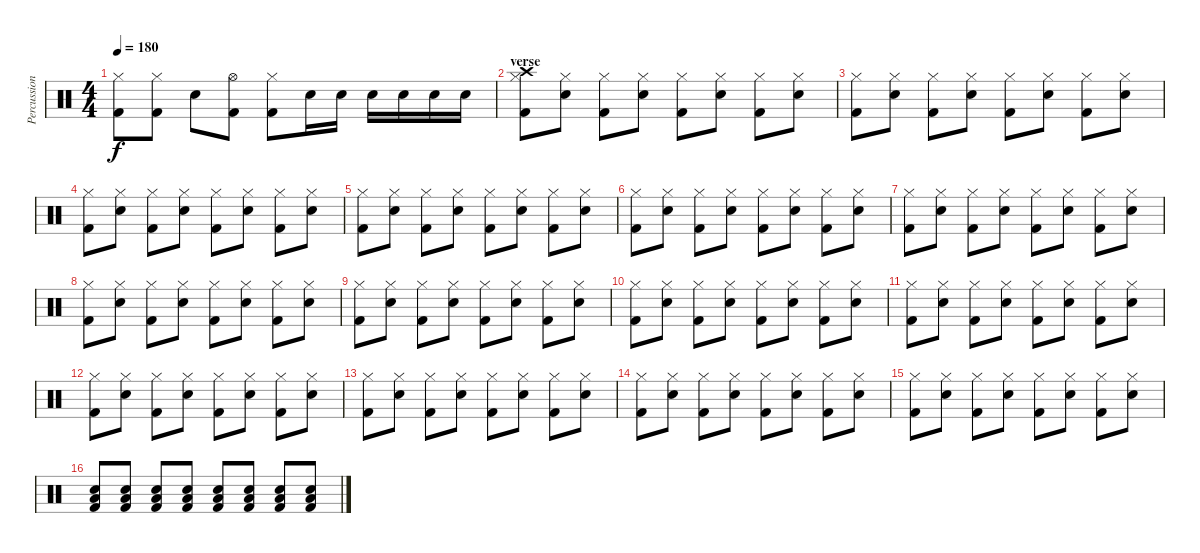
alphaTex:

\track ("Percussion" "Percussion") {instrument percussion}
\staff {score}
\articulation defaults
\ts (4 4)
\tempo 180
\clef neutral
\ks c
("Hi-Hat (closed)" "Kick (hit) 2").8{dy f} ("Hi-Hat (closed)" "Kick (hit) 2").8 "Electric Snare (hit)".8 ("Hi-Hat (open)" "Kick (hit) 2").8 ("Hi-Hat (closed)" "Kick (hit) 2").8 "Electric Snare (hit)".16 "Electric Snare (hit)".16 "Electric Snare (hit)".16 "Electric Snare (hit)".16 "Electric Snare (hit)".16 "Electric Snare (hit)".16 |
\section ("" "verse")
("Crash high (hit)" "Hi-Hat (closed)" "Kick (hit) 2").8 ("Hi-Hat (closed)" "Electric Snare (hit)").8 ("Hi-Hat (closed)" "Kick (hit) 2").8 ("Hi-Hat (closed)" "Electric Snare (hit)").8 ("Hi-Hat (closed)" "Kick (hit) 2").8 ("Hi-Hat (closed)" "Electric Snare (hit)").8 ("Hi-Hat (closed)" "Kick (hit) 2").8 ("Hi-Hat (closed)" "Electric Snare (hit)").8 |
("Hi-Hat (closed)" "Kick (hit) 2").8 ("Hi-Hat (closed)" "Electric Snare (hit)").8 ("Hi-Hat (closed)" "Kick (hit) 2").8 ("Hi-Hat (closed)" "Electric Snare (hit)").8 ("Hi-Hat (closed)" "Kick (hit) 2").8 ("Hi-Hat (closed)" "Electric Snare (hit)").8 ("Hi-Hat (closed)" "Kick (hit) 2").8 ("Hi-Hat (closed)" "Electric Snare (hit)").8 |
("Hi-Hat (closed)" "Kick (hit) 2").8 ("Hi-Hat (closed)" "Electric Snare (hit)").8 ("Hi-Hat (closed)" "Kick (hit) 2").8 ("Hi-Hat (closed)" "Electric Snare (hit)").8 ("Hi-Hat (closed)" "Kick (hit) 2").8 ("Hi-Hat (closed)" "Electric Snare (hit)").8 ("Hi-Hat (closed)" "Kick (hit) 2").8 ("Hi-Hat (closed)" "Electric Snare (hit)").8 |
("Hi-Hat (closed)" "Kick (hit) 2").8 ("Hi-Hat (closed)" "Electric Snare (hit)").8 ("Hi-Hat (closed)" "Kick (hit) 2").8 ("Hi-Hat (closed)" "Electric Snare (hit)").8 ("Hi-Hat (closed)" "Kick (hit) 2").8 ("Hi-Hat (closed)" "Electric Snare (hit)").8 ("Hi-Hat (closed)" "Kick (hit) 2").8 ("Hi-Hat (closed)" "Electric Snare (hit)").8 |
("Hi-Hat (closed)" "Kick (hit) 2").8 ("Hi-Hat (closed)" "Electric Snare (hit)").8 ("Hi-Hat (closed)" "Kick (hit) 2").8 ("Hi-Hat (closed)" "Electric Snare (hit)").8 ("Hi-Hat (closed)" "Kick (hit) 2").8 ("Hi-Hat (closed)" "Electric Snare (hit)").8 ("Hi-Hat (closed)" "Kick (hit) 2").8 ("Hi-Hat (closed)" "Electric Snare (hit)").8 |
("Hi-Hat (closed)" "Kick (hit) 2").8 ("Hi-Hat (closed)" "Electric Snare (hit)").8 ("Hi-Hat (closed)" "Kick (hit) 2").8 ("Hi-Hat (closed)" "Electric Snare (hit)").8 ("Hi-Hat (closed)" "Kick (hit) 2").8 ("Hi-Hat (closed)" "Electric Snare (hit)").8 ("Hi-Hat (closed)" "Kick (hit) 2").8 ("Hi-Hat (closed)" "Electric Snare (hit)").8 |
("Hi-Hat (closed)" "Kick (hit) 2").8 ("Hi-Hat (closed)" "Electric Snare (hit)").8 ("Hi-Hat (closed)" "Kick (hit) 2").8 ("Hi-Hat (closed)" "Electric Snare (hit)").8 ("Hi-Hat (closed)" "Kick (hit) 2").8 ("Hi-Hat (closed)" "Electric Snare (hit)").8 ("Hi-Hat (closed)" "Kick (hit) 2").8 ("Hi-Hat (closed)" "Electric Snare (hit)").8 |
("Hi-Hat (closed)" "Kick (hit) 2").8 ("Hi-Hat (closed)" "Electric Snare (hit)").8 ("Hi-Hat (closed)" "Kick (hit) 2").8 ("Hi-Hat (closed)" "Electric Snare (hit)").8 ("Hi-Hat (closed)" "Kick (hit) 2").8 ("Hi-Hat (closed)" "Electric Snare (hit)").8 ("Hi-Hat (closed)" "Kick (hit) 2").8 ("Hi-Hat (closed)" "Electric Snare (hit)").8 |
("Hi-Hat (closed)" "Kick (hit) 2").8 ("Hi-Hat (closed)" "Electric Snare (hit)").8 ("Hi-Hat (closed)" "Kick (hit) 2").8 ("Hi-Hat (closed)" "Electric Snare (hit)").8 ("Hi-Hat (closed)" "Kick (hit) 2").8 ("Hi-Hat (closed)" "Electric Snare (hit)").8 ("Hi-Hat (closed)" "Kick (hit) 2").8 ("Hi-Hat (closed)" "Electric Snare (hit)").8 |
("Hi-Hat (closed)" "Kick (hit) 2").8 ("Hi-Hat (closed)" "Electric Snare (hit)").8 ("Hi-Hat (closed)" "Kick (hit) 2").8 ("Hi-Hat (closed)" "Electric Snare (hit)").8 ("Hi-Hat (closed)" "Kick (hit) 2").8 ("Hi-Hat (closed)" "Electric Snare (hit)").8 ("Hi-Hat (closed)" "Kick (hit) 2").8 ("Hi-Hat (closed)" "Electric Snare (hit)").8 |
("Hi-Hat (closed)" "Kick (hit) 2").8 ("Hi-Hat (closed)" "Electric Snare (hit)").8 ("Hi-Hat (closed)" "Kick (hit) 2").8 ("Hi-Hat (closed)" "Electric Snare (hit)").8 ("Hi-Hat (closed)" "Kick (hit) 2").8 ("Hi-Hat (closed)" "Electric Snare (hit)").8 ("Hi-Hat (closed)" "Kick (hit) 2").8 ("Hi-Hat (closed)" "Electric Snare (hit)").8 |
("Hi-Hat (closed)" "Kick (hit) 2").8 ("Hi-Hat (closed)" "Electric Snare (hit)").8 ("Hi-Hat (closed)" "Kick (hit) 2").8 ("Hi-Hat (closed)" "Electric Snare (hit)").8 ("Hi-Hat (closed)" "Kick (hit) 2").8 ("Hi-Hat (closed)" "Electric Snare (hit)").8 ("Hi-Hat (closed)" "Kick (hit) 2").8 ("Hi-Hat (closed)" "Electric Snare (hit)").8 |
("Hi-Hat (closed)" "Kick (hit) 2").8 ("Hi-Hat (closed)" "Electric Snare (hit)").8 ("Hi-Hat (closed)" "Kick (hit) 2").8 ("Hi-Hat (closed)" "Electric Snare (hit)").8 ("Hi-Hat (closed)" "Kick (hit) 2").8 ("Hi-Hat (closed)" "Electric Snare (hit)").8 ("Hi-Hat (closed)" "Kick (hit) 2").8 ("Hi-Hat (closed)" "Electric Snare (hit)").8 |
("Hi-Hat (closed)" "Kick (hit) 2").8 ("Hi-Hat (closed)" "Electric Snare (hit)").8 ("Hi-Hat (closed)" "Kick (hit) 2").8 ("Hi-Hat (closed)" "Electric Snare (hit)").8 ("Hi-Hat (closed)" "Kick (hit) 2").8 ("Hi-Hat (closed)" "Electric Snare (hit)").8 ("Hi-Hat (closed)" "Kick (hit) 2").8 ("Hi-Hat (closed)" "Electric Snare (hit)").8 |
("Low Floor Tom (hit)" "Electric Snare (hit)" "Kick (hit) 2").8{volume 9} ("Low Floor Tom (hit)" "Electric Snare (hit)" "Kick (hit) 2").8{volume 12} ("Low Floor Tom (hit)" "Electric Snare (hit)" "Kick (hit) 2").8 ("Low Floor Tom (hit)" "Electric Snare (hit)" "Kick (hit) 2").8 ("Low Floor Tom (hit)" "Electric Snare (hit)" "Kick (hit) 2").8 ("Low Floor Tom (hit)" "Electric Snare (hit)" "Kick (hit) 2").8 ("Low Floor Tom (hit)" "Electric Snare (hit)" "Kick (hit) 2").8 ("Low Floor Tom (hit)" "Electric Snare (hit)" "Kick (hit) 2").8
